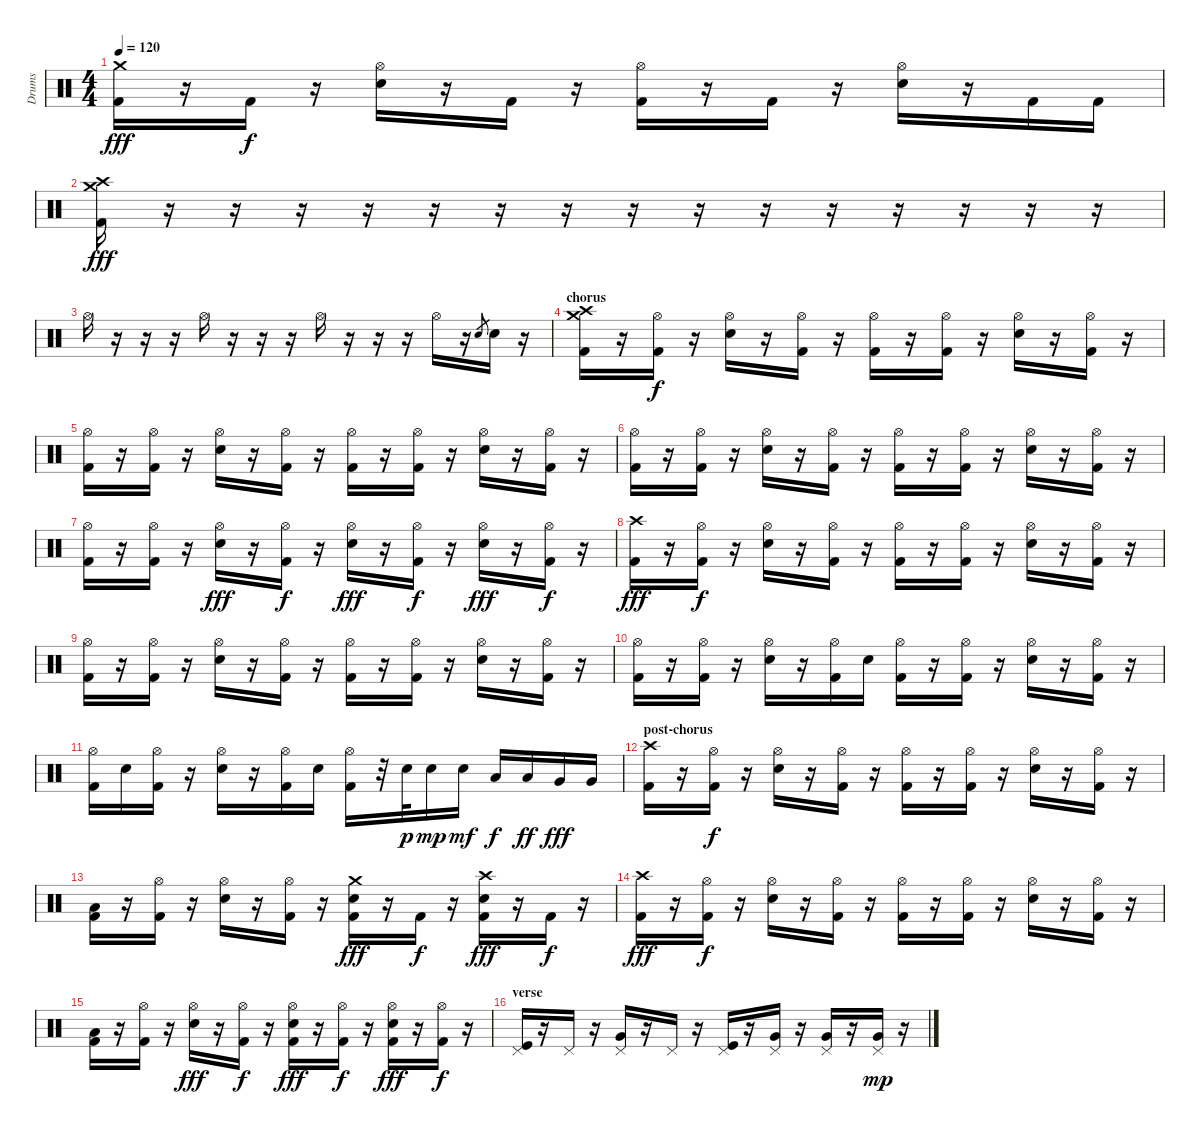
\track ("Drums" "Drums") {instrument percussion}
\staff {score}
\articulation defaults
\ts (4 4)
\tempo 120
\clef neutral
\ks c
("Crash medium (hit)" "Kick (hit) 2").16{dy fff} r.16 "Kick (hit) 2".16{dy f} r.16 ("Hi-Hat (open)" "Electric Snare (hit)").16 r.16 "Kick (hit) 2".16 r.16 ("Hi-Hat (open)" "Kick (hit) 2").16 r.16 "Kick (hit) 2".16 r.16 ("Hi-Hat (open)" "Electric Snare (hit)").16 r.16 "Kick (hit) 2".16 "Kick (hit) 2".16 |
("Crash high (hit)" "Crash medium (hit)" "Kick (hit) 2").16{dy fff} r.16 r.16 r.16 r.16 r.16 r.16 r.16 r.16 r.16 r.16 r.16 r.16 r.16 r.16 r.16 |
"Hi-Hat (open)".16 r.16 r.16 r.16 "Hi-Hat (open)".16 r.16 r.16 r.16 "Hi-Hat (open)".16 r.16 r.16 r.16 "Hi-Hat (open)".16 r.16 "Electric Snare (hit)".8{gr} "Electric Snare (hit)".16 r.16 |
\section ("" "chorus")
("Crash high (hit)" "Crash medium (hit)" "Kick (hit) 2").16 r.16 ("Hi-Hat (open)" "Kick (hit) 2").16{dy f} r.16 ("Hi-Hat (open)" "Electric Snare (hit)").16 r.16 ("Hi-Hat (open)" "Kick (hit) 2").16 r.16 ("Hi-Hat (open)" "Kick (hit) 2").16 r.16 ("Hi-Hat (open)" "Kick (hit) 2").16 r.16 ("Hi-Hat (open)" "Electric Snare (hit)").16 r.16 ("Hi-Hat (open)" "Kick (hit) 2").16 r.16 |
("Hi-Hat (open)" "Kick (hit) 2").16 r.16 ("Hi-Hat (open)" "Kick (hit) 2").16 r.16 ("Hi-Hat (open)" "Electric Snare (hit)").16 r.16 ("Hi-Hat (open)" "Kick (hit) 2").16 r.16 ("Hi-Hat (open)" "Kick (hit) 2").16 r.16 ("Hi-Hat (open)" "Kick (hit) 2").16 r.16 ("Hi-Hat (open)" "Electric Snare (hit)").16 r.16 ("Hi-Hat (open)" "Kick (hit) 2").16 r.16 |
("Hi-Hat (open)" "Kick (hit) 2").16 r.16 ("Hi-Hat (open)" "Kick (hit) 2").16 r.16 ("Hi-Hat (open)" "Electric Snare (hit)").16 r.16 ("Hi-Hat (open)" "Kick (hit) 2").16 r.16 ("Hi-Hat (open)" "Kick (hit) 2").16 r.16 ("Hi-Hat (open)" "Kick (hit) 2").16 r.16 ("Hi-Hat (open)" "Electric Snare (hit)").16 r.16 ("Hi-Hat (open)" "Kick (hit) 2").16 r.16 |
("Hi-Hat (open)" "Kick (hit) 2").16 r.16 ("Hi-Hat (open)" "Kick (hit) 2").16 r.16 ("Hi-Hat (open)" "Electric Snare (hit)").16{dy fff} r.16 ("Hi-Hat (open)" "Kick (hit) 2").16{dy f} r.16 ("Hi-Hat (open)" "Electric Snare (hit)").16{dy fff} r.16 ("Hi-Hat (open)" "Kick (hit) 2").16{dy f} r.16 ("Hi-Hat (open)" "Electric Snare (hit)").16{dy fff} r.16 ("Hi-Hat (open)" "Kick (hit) 2").16{dy f} r.16 |
("Crash high (hit)" "Kick (hit) 2").16{dy fff} r.16 ("Hi-Hat (open)" "Kick (hit) 2").16{dy f} r.16 ("Hi-Hat (open)" "Electric Snare (hit)").16 r.16 ("Hi-Hat (open)" "Kick (hit) 2").16 r.16 ("Hi-Hat (open)" "Kick (hit) 2").16 r.16 ("Hi-Hat (open)" "Kick (hit) 2").16 r.16 ("Hi-Hat (open)" "Electric Snare (hit)").16 r.16 ("Hi-Hat (open)" "Kick (hit) 2").16 r.16 |
("Hi-Hat (open)" "Kick (hit) 2").16 r.16 ("Hi-Hat (open)" "Kick (hit) 2").16 r.16 ("Hi-Hat (open)" "Electric Snare (hit)").16 r.16 ("Hi-Hat (open)" "Kick (hit) 2").16 r.16 ("Hi-Hat (open)" "Kick (hit) 2").16 r.16 ("Hi-Hat (open)" "Kick (hit) 2").16 r.16 ("Hi-Hat (open)" "Electric Snare (hit)").16 r.16 ("Hi-Hat (open)" "Kick (hit) 2").16 r.16 |
("Hi-Hat (open)" "Kick (hit) 2").16 r.16 ("Hi-Hat (open)" "Kick (hit) 2").16 r.16 ("Hi-Hat (open)" "Electric Snare (hit)").16 r.16 ("Hi-Hat (open)" "Kick (hit) 2").16 "Electric Snare (hit)".16 ("Hi-Hat (open)" "Kick (hit) 2").16 r.16 ("Hi-Hat (open)" "Kick (hit) 2").16 r.16 ("Hi-Hat (open)" "Electric Snare (hit)").16 r.16 ("Hi-Hat (open)" "Kick (hit) 2").16 r.16 |
("Hi-Hat (open)" "Kick (hit) 2").16 "Electric Snare (hit)".16 ("Hi-Hat (open)" "Kick (hit) 2").16 r.16 ("Hi-Hat (open)" "Electric Snare (hit)").16 r.16 ("Hi-Hat (open)" "Kick (hit) 2").16 "Electric Snare (hit)".16 ("Hi-Hat (open)" "Kick (hit) 2").16 r.32 "Electric Snare (hit)".32{dy p} "Electric Snare (hit)".16{dy mp} "Electric Snare (hit)".16{dy mf} "Low Tom (hit)".16{dy f} "Low Tom (hit)".16{dy ff} "Very Low Tom (hit)".16{dy fff} "Very Low Tom (hit)".16 |
\section ("" "post-chorus")
("Crash high (hit)" "Kick (hit) 2").16 r.16 ("Hi-Hat (open)" "Kick (hit) 2").16{dy f} r.16 ("Hi-Hat (open)" "Electric Snare (hit)").16 r.16 ("Hi-Hat (open)" "Kick (hit) 2").16 r.16 ("Hi-Hat (open)" "Kick (hit) 2").16 r.16 ("Hi-Hat (open)" "Kick (hit) 2").16 r.16 ("Hi-Hat (open)" "Electric Snare (hit)").16 r.16 ("Hi-Hat (open)" "Kick (hit) 2").16 r.16 |
("Low Tom (hit)" "Kick (hit) 2").16 r.16 ("Hi-Hat (open)" "Kick (hit) 2").16 r.16 ("Hi-Hat (open)" "Electric Snare (hit)").16 r.16 ("Hi-Hat (open)" "Kick (hit) 2").16 r.16 ("Crash medium (hit)" "Electric Snare (hit)" "Kick (hit) 2").16{dy fff} r.16 "Kick (hit) 2".16{dy f} r.16 ("Crash high (hit)" "Electric Snare (hit)" "Kick (hit) 2").16{dy fff} r.16 "Kick (hit) 2".16{dy f} r.16 |
("Crash high (hit)" "Kick (hit) 2").16{dy fff} r.16 ("Hi-Hat (open)" "Kick (hit) 2").16{dy f} r.16 ("Hi-Hat (open)" "Electric Snare (hit)").16 r.16 ("Hi-Hat (open)" "Kick (hit) 2").16 r.16 ("Hi-Hat (open)" "Kick (hit) 2").16 r.16 ("Hi-Hat (open)" "Kick (hit) 2").16 r.16 ("Hi-Hat (open)" "Electric Snare (hit)").16 r.16 ("Hi-Hat (open)" "Kick (hit) 2").16 r.16 |
("Low Tom (hit)" "Kick (hit) 2").16 r.16 ("Hi-Hat (open)" "Kick (hit) 2").16 r.16 ("Hi-Hat (open)" "Electric Snare (hit)").16{dy fff} r.16 ("Hi-Hat (open)" "Kick (hit) 2").16{dy f} r.16 ("Hi-Hat (open)" "Electric Snare (hit)" "Kick (hit) 2").16{dy fff} r.16 ("Hi-Hat (open)" "Kick (hit) 2").16{dy f} r.16 ("Hi-Hat (open)" "Electric Snare (hit)" "Kick (hit) 2").16{dy fff} r.16 ("Hi-Hat (open)" "Kick (hit) 2").16{dy f} r.16 |
\section ("" "verse")
("Pedal Hi-Hat (hit)" "Kick (hit)").16{volume 12} r.16 "Pedal Hi-Hat (hit)".16 r.16 ("Pedal Hi-Hat (hit)" "Very Low Tom (hit)").16 r.16 "Pedal Hi-Hat (hit)".16 r.16 ("Pedal Hi-Hat (hit)" "Kick (hit)").16 r.16 ("Pedal Hi-Hat (hit)" "Very Low Tom (hit)").16 r.16 ("Pedal Hi-Hat (hit)" "Very Low Tom (hit)").16 r.16 ("Pedal Hi-Hat (hit)" "Very Low Tom (hit)").16{dy mp} r.16
